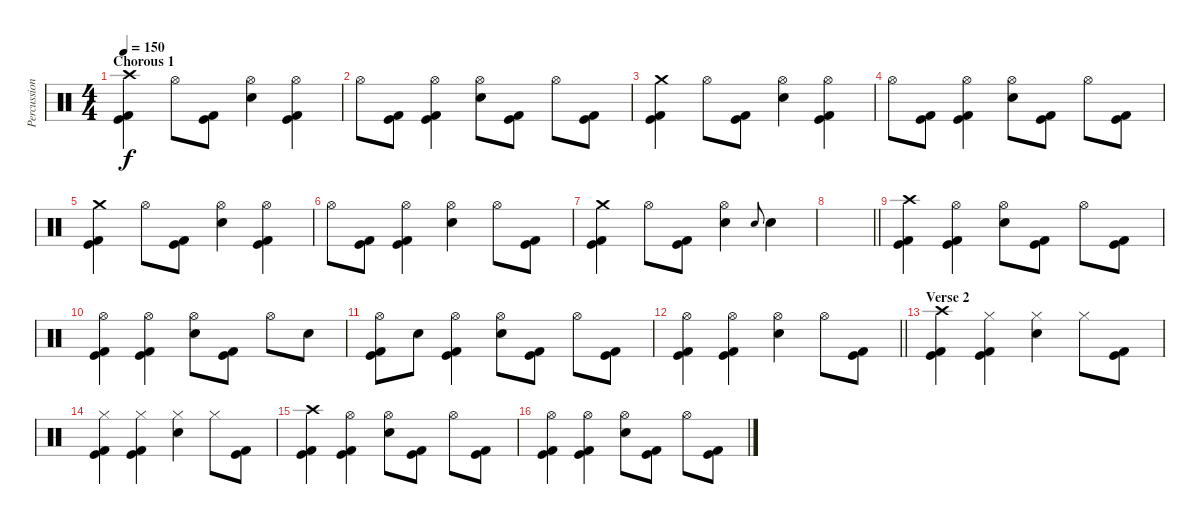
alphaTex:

\track ("Percussion" "Percussion") {instrument percussion}
\staff {score}
\articulation defaults
\ts (4 4)
\section ("" "Chorous 1")
\tempo 150
\clef neutral
\ks c
("Crash high (hit)" "Kick (hit)" "Kick (hit) 2").4{dy f} "Hi-Hat (open)".8 ("Kick (hit)" "Kick (hit) 2").8 ("Hi-Hat (open)" "Electric Snare (hit)").4 ("Hi-Hat (open)" "Kick (hit)" "Kick (hit) 2").4 |
"Hi-Hat (open)".8 ("Kick (hit)" "Kick (hit) 2").8 ("Hi-Hat (open)" "Kick (hit)" "Kick (hit) 2").4 ("Hi-Hat (open)" "Electric Snare (hit)").8 ("Kick (hit)" "Kick (hit) 2").8 "Hi-Hat (open)".8 ("Kick (hit)" "Kick (hit) 2").8 |
("Crash medium (hit)" "Kick (hit)" "Kick (hit) 2").4 "Hi-Hat (open)".8 ("Kick (hit)" "Kick (hit) 2").8 ("Hi-Hat (open)" "Electric Snare (hit)").4 ("Hi-Hat (open)" "Kick (hit)" "Kick (hit) 2").4 |
"Hi-Hat (open)".8 ("Kick (hit)" "Kick (hit) 2").8 ("Hi-Hat (open)" "Kick (hit)" "Kick (hit) 2").4 ("Hi-Hat (open)" "Electric Snare (hit)").8 ("Kick (hit)" "Kick (hit) 2").8 "Hi-Hat (open)".8 ("Kick (hit)" "Kick (hit) 2").8 |
("Crash medium (hit)" "Kick (hit)" "Kick (hit) 2").4 "Hi-Hat (open)".8 ("Kick (hit)" "Kick (hit) 2").8 ("Hi-Hat (open)" "Electric Snare (hit)").4 ("Hi-Hat (open)" "Kick (hit)" "Kick (hit) 2").4 |
"Hi-Hat (open)".8 ("Kick (hit)" "Kick (hit) 2").8 ("Hi-Hat (open)" "Kick (hit)" "Kick (hit) 2").4 ("Hi-Hat (open)" "Electric Snare (hit)").4 "Hi-Hat (open)".8 ("Kick (hit)" "Kick (hit) 2").8 |
("Crash medium (hit)" "Kick (hit)" "Kick (hit) 2").4 "Hi-Hat (open)".8 ("Kick (hit)" "Kick (hit) 2").8 ("Hi-Hat (open)" "Electric Snare (hit)").4 "Electric Snare (hit)".8{gr onbeat} "Electric Snare (hit)".4 |
\barLineRight lightlight
|
\section ("" "")
("Crash high (hit)" "Kick (hit)" "Kick (hit) 2").4 ("Hi-Hat (open)" "Kick (hit)" "Kick (hit) 2").4 ("Hi-Hat (open)" "Electric Snare (hit)").8 ("Kick (hit)" "Kick (hit) 2").8 "Hi-Hat (open)".8 ("Kick (hit)" "Kick (hit) 2").8 |
("Hi-Hat (open)" "Kick (hit)" "Kick (hit) 2").4 ("Hi-Hat (open)" "Kick (hit)" "Kick (hit) 2").4 ("Hi-Hat (open)" "Electric Snare (hit)").8 ("Kick (hit)" "Kick (hit) 2").8 "Hi-Hat (open)".8 "Electric Snare (hit)".8 |
("Hi-Hat (open)" "Kick (hit)" "Kick (hit) 2").8 "Electric Snare (hit)".8 ("Hi-Hat (open)" "Kick (hit)" "Kick (hit) 2").4 ("Hi-Hat (open)" "Electric Snare (hit)").8 ("Kick (hit)" "Kick (hit) 2").8 "Hi-Hat (open)".8 ("Kick (hit)" "Kick (hit) 2").8 |
\barLineRight lightlight
("Hi-Hat (open)" "Kick (hit)" "Kick (hit) 2").4 ("Hi-Hat (open)" "Kick (hit)" "Kick (hit) 2").4 ("Hi-Hat (open)" "Electric Snare (hit)").4 "Hi-Hat (open)".8 ("Kick (hit)" "Kick (hit) 2").8 |
\section ("" "Verse 2")
("Crash high (hit)" "Kick (hit)" "Kick (hit) 2").4 ("Hi-Hat (closed)" "Kick (hit)" "Kick (hit) 2").4 ("Hi-Hat (closed)" "Electric Snare (hit)").4 "Hi-Hat (closed)".8 ("Kick (hit)" "Kick (hit) 2").8 |
("Hi-Hat (closed)" "Kick (hit)" "Kick (hit) 2").4 ("Hi-Hat (closed)" "Kick (hit)" "Kick (hit) 2").4 ("Hi-Hat (closed)" "Electric Snare (hit)").4 "Hi-Hat (closed)".8 ("Kick (hit)" "Kick (hit) 2").8 |
("Crash high (hit)" "Kick (hit)" "Kick (hit) 2").4 ("Hi-Hat (open)" "Kick (hit)" "Kick (hit) 2").4 ("Hi-Hat (open)" "Electric Snare (hit)").8 ("Kick (hit)" "Kick (hit) 2").8 "Hi-Hat (open)".8 ("Kick (hit)" "Kick (hit) 2").8 |
("Hi-Hat (open)" "Kick (hit)" "Kick (hit) 2").4 ("Hi-Hat (open)" "Kick (hit)" "Kick (hit) 2").4 ("Hi-Hat (open)" "Electric Snare (hit)").8 ("Kick (hit)" "Kick (hit) 2").8 "Hi-Hat (open)".8 ("Kick (hit)" "Kick (hit) 2").8
